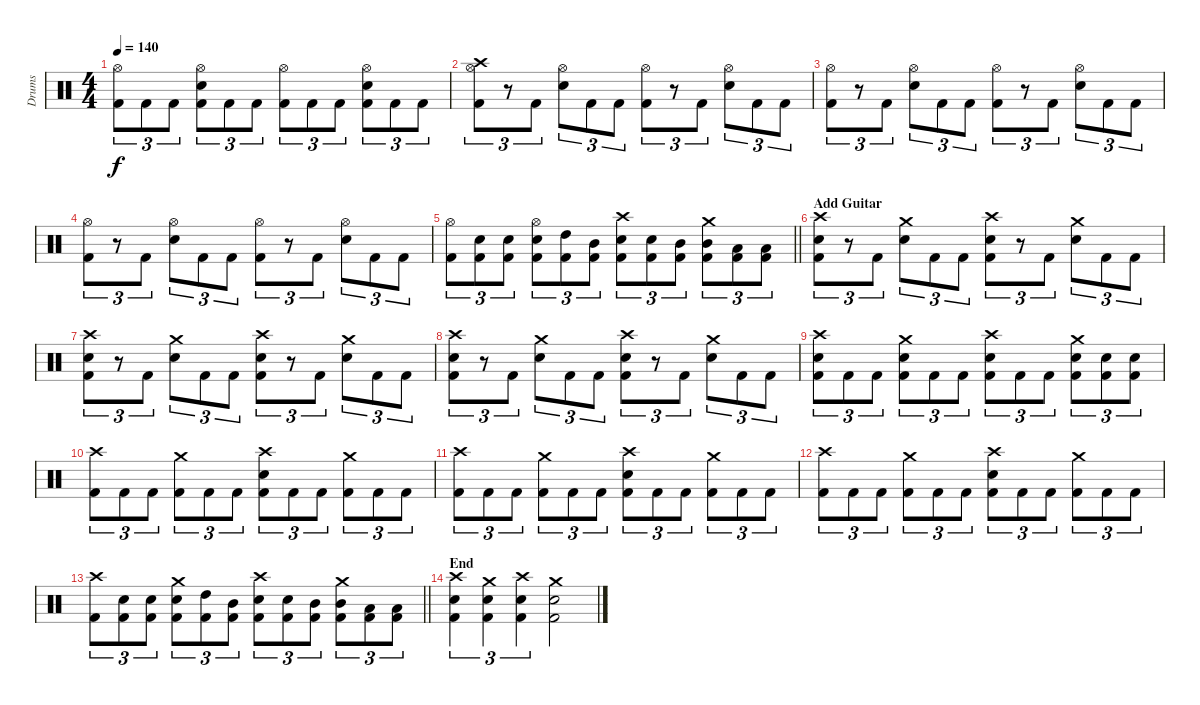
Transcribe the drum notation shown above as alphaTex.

\track ("Drums" "Drums") {instrument percussion}
\staff {score}
\articulation defaults
\ts (4 4)
\tempo 140
\clef neutral
\ks c
("Hi-Hat (open)" "Kick (hit) 2").8{tu (3 2) dy f} "Kick (hit) 2".8{tu (3 2)} "Kick (hit) 2".8{tu (3 2)} ("Hi-Hat (open)" "Snare (hit) 2" "Kick (hit) 2").8{tu (3 2)} "Kick (hit) 2".8{tu (3 2)} "Kick (hit) 2".8{tu (3 2)} ("Hi-Hat (open)" "Kick (hit) 2").8{tu (3 2)} "Kick (hit) 2".8{tu (3 2)} "Kick (hit) 2".8{tu (3 2)} ("Hi-Hat (open)" "Snare (hit) 2" "Kick (hit) 2").8{tu (3 2)} "Kick (hit) 2".8{tu (3 2)} "Kick (hit) 2".8{tu (3 2)} |
("Crash high (hit)" "Hi-Hat (open)" "Kick (hit) 2").8{tu (3 2)} r.8{tu (3 2)} "Kick (hit) 2".8{tu (3 2)} ("Hi-Hat (open)" "Snare (hit) 2").8{tu (3 2)} "Kick (hit) 2".8{tu (3 2)} "Kick (hit) 2".8{tu (3 2)} ("Hi-Hat (open)" "Kick (hit) 2").8{tu (3 2)} r.8{tu (3 2)} "Kick (hit) 2".8{tu (3 2)} ("Hi-Hat (open)" "Snare (hit) 2").8{tu (3 2)} "Kick (hit) 2".8{tu (3 2)} "Kick (hit) 2".8{tu (3 2)} |
("Hi-Hat (open)" "Kick (hit) 2").8{tu (3 2)} r.8{tu (3 2)} "Kick (hit) 2".8{tu (3 2)} ("Hi-Hat (open)" "Snare (hit) 2").8{tu (3 2)} "Kick (hit) 2".8{tu (3 2)} "Kick (hit) 2".8{tu (3 2)} ("Hi-Hat (open)" "Kick (hit) 2").8{tu (3 2)} r.8{tu (3 2)} "Kick (hit) 2".8{tu (3 2)} ("Hi-Hat (open)" "Snare (hit) 2").8{tu (3 2)} "Kick (hit) 2".8{tu (3 2)} "Kick (hit) 2".8{tu (3 2)} |
("Hi-Hat (open)" "Kick (hit) 2").8{tu (3 2)} r.8{tu (3 2)} "Kick (hit) 2".8{tu (3 2)} ("Hi-Hat (open)" "Snare (hit) 2").8{tu (3 2)} "Kick (hit) 2".8{tu (3 2)} "Kick (hit) 2".8{tu (3 2)} ("Hi-Hat (open)" "Kick (hit) 2").8{tu (3 2)} r.8{tu (3 2)} "Kick (hit) 2".8{tu (3 2)} ("Hi-Hat (open)" "Snare (hit) 2").8{tu (3 2)} "Kick (hit) 2".8{tu (3 2)} "Kick (hit) 2".8{tu (3 2)} |
\barLineRight lightlight
("Hi-Hat (open)" "Kick (hit) 2").8{tu (3 2)} ("Snare (hit) 2" "Kick (hit) 2").8{tu (3 2)} ("Snare (hit) 2" "Kick (hit) 2").8{tu (3 2)} ("Hi-Hat (open)" "Snare (hit) 2" "Kick (hit) 2").8{tu (3 2)} ("High Tom (hit)" "Kick (hit) 2").8{tu (3 2)} ("Mid Tom (hit)" "Kick (hit) 2").8{tu (3 2)} ("Crash high (hit)" "Snare (hit) 2" "Kick (hit) 2").8{tu (3 2)} ("Snare (hit) 2" "Kick (hit) 2").8{tu (3 2)} ("Mid Tom (hit)" "Kick (hit) 2").8{tu (3 2)} ("Crash medium (hit)" "Mid Tom (hit)" "Kick (hit) 2").8{tu (3 2)} ("Low Tom (hit)" "Kick (hit) 2").8{tu (3 2)} ("Low Tom (hit)" "Kick (hit) 2").8{tu (3 2)} |
\section ("" "Add Guitar")
("Crash high (hit)" "Snare (hit) 2" "Kick (hit) 2").8{tu (3 2)} r.8{tu (3 2)} "Kick (hit) 2".8{tu (3 2)} ("Crash medium (hit)" "Snare (hit) 2").8{tu (3 2)} "Kick (hit) 2".8{tu (3 2)} "Kick (hit) 2".8{tu (3 2)} ("Crash high (hit)" "Snare (hit) 2" "Kick (hit) 2").8{tu (3 2)} r.8{tu (3 2)} "Kick (hit) 2".8{tu (3 2)} ("Crash medium (hit)" "Snare (hit) 2").8{tu (3 2)} "Kick (hit) 2".8{tu (3 2)} "Kick (hit) 2".8{tu (3 2)} |
("Crash high (hit)" "Snare (hit) 2" "Kick (hit) 2").8{tu (3 2)} r.8{tu (3 2)} "Kick (hit) 2".8{tu (3 2)} ("Crash medium (hit)" "Snare (hit) 2").8{tu (3 2)} "Kick (hit) 2".8{tu (3 2)} "Kick (hit) 2".8{tu (3 2)} ("Crash high (hit)" "Snare (hit) 2" "Kick (hit) 2").8{tu (3 2)} r.8{tu (3 2)} "Kick (hit) 2".8{tu (3 2)} ("Crash medium (hit)" "Snare (hit) 2").8{tu (3 2)} "Kick (hit) 2".8{tu (3 2)} "Kick (hit) 2".8{tu (3 2)} |
("Crash high (hit)" "Snare (hit) 2" "Kick (hit) 2").8{tu (3 2)} r.8{tu (3 2)} "Kick (hit) 2".8{tu (3 2)} ("Crash medium (hit)" "Snare (hit) 2").8{tu (3 2)} "Kick (hit) 2".8{tu (3 2)} "Kick (hit) 2".8{tu (3 2)} ("Crash high (hit)" "Snare (hit) 2" "Kick (hit) 2").8{tu (3 2)} r.8{tu (3 2)} "Kick (hit) 2".8{tu (3 2)} ("Crash medium (hit)" "Snare (hit) 2").8{tu (3 2)} "Kick (hit) 2".8{tu (3 2)} "Kick (hit) 2".8{tu (3 2)} |
("Crash high (hit)" "Snare (hit) 2" "Kick (hit) 2").8{tu (3 2)} "Kick (hit) 2".8{tu (3 2)} "Kick (hit) 2".8{tu (3 2)} ("Crash medium (hit)" "Snare (hit) 2" "Kick (hit) 2").8{tu (3 2)} "Kick (hit) 2".8{tu (3 2)} "Kick (hit) 2".8{tu (3 2)} ("Crash high (hit)" "Snare (hit) 2" "Kick (hit) 2").8{tu (3 2)} "Kick (hit) 2".8{tu (3 2)} "Kick (hit) 2".8{tu (3 2)} ("Crash medium (hit)" "Snare (hit) 2" "Kick (hit) 2").8{tu (3 2)} ("Snare (hit) 2" "Kick (hit) 2").8{tu (3 2)} ("Snare (hit) 2" "Kick (hit) 2").8{tu (3 2)} |
("Crash high (hit)" "Kick (hit) 2").8{tu (3 2)} "Kick (hit) 2".8{tu (3 2)} "Kick (hit) 2".8{tu (3 2)} ("Crash medium (hit)" "Kick (hit) 2").8{tu (3 2)} "Kick (hit) 2".8{tu (3 2)} "Kick (hit) 2".8{tu (3 2)} ("Crash high (hit)" "Snare (hit) 2" "Kick (hit) 2").8{tu (3 2)} "Kick (hit) 2".8{tu (3 2)} "Kick (hit) 2".8{tu (3 2)} ("Crash medium (hit)" "Kick (hit) 2").8{tu (3 2)} "Kick (hit) 2".8{tu (3 2)} "Kick (hit) 2".8{tu (3 2)} |
("Crash high (hit)" "Kick (hit) 2").8{tu (3 2)} "Kick (hit) 2".8{tu (3 2)} "Kick (hit) 2".8{tu (3 2)} ("Crash medium (hit)" "Kick (hit) 2").8{tu (3 2)} "Kick (hit) 2".8{tu (3 2)} "Kick (hit) 2".8{tu (3 2)} ("Crash high (hit)" "Snare (hit) 2" "Kick (hit) 2").8{tu (3 2)} "Kick (hit) 2".8{tu (3 2)} "Kick (hit) 2".8{tu (3 2)} ("Crash medium (hit)" "Kick (hit) 2").8{tu (3 2)} "Kick (hit) 2".8{tu (3 2)} "Kick (hit) 2".8{tu (3 2)} |
("Crash high (hit)" "Kick (hit) 2").8{tu (3 2)} "Kick (hit) 2".8{tu (3 2)} "Kick (hit) 2".8{tu (3 2)} ("Crash medium (hit)" "Kick (hit) 2").8{tu (3 2)} "Kick (hit) 2".8{tu (3 2)} "Kick (hit) 2".8{tu (3 2)} ("Crash high (hit)" "Snare (hit) 2" "Kick (hit) 2").8{tu (3 2)} "Kick (hit) 2".8{tu (3 2)} "Kick (hit) 2".8{tu (3 2)} ("Crash medium (hit)" "Kick (hit) 2").8{tu (3 2)} "Kick (hit) 2".8{tu (3 2)} "Kick (hit) 2".8{tu (3 2)} |
\barLineRight lightlight
("Crash high (hit)" "Kick (hit) 2").8{tu (3 2)} ("Snare (hit) 2" "Kick (hit) 2").8{tu (3 2)} ("Snare (hit) 2" "Kick (hit) 2").8{tu (3 2)} ("Crash medium (hit)" "Snare (hit) 2" "Kick (hit) 2").8{tu (3 2)} ("High Tom (hit)" "Kick (hit) 2").8{tu (3 2)} ("Mid Tom (hit)" "Kick (hit) 2").8{tu (3 2)} ("Crash high (hit)" "Snare (hit) 2" "Kick (hit) 2").8{tu (3 2)} ("Snare (hit) 2" "Kick (hit) 2").8{tu (3 2)} ("Mid Tom (hit)" "Kick (hit) 2").8{tu (3 2)} ("Crash medium (hit)" "Mid Tom (hit)" "Kick (hit) 2").8{tu (3 2)} ("Low Tom (hit)" "Kick (hit) 2").8{tu (3 2)} ("Low Tom (hit)" "Kick (hit) 2").8{tu (3 2)} |
\section ("" "End")
("Crash high (hit)" "Snare (hit) 2" "Kick (hit) 2").4{tu (3 2)} ("Crash medium (hit)" "Snare (hit) 2" "Kick (hit) 2").4{tu (3 2)} ("Crash high (hit)" "Snare (hit) 2" "Kick (hit) 2").4{tu (3 2)} ("Crash medium (hit)" "Snare (hit) 2" "Kick (hit) 2").2
